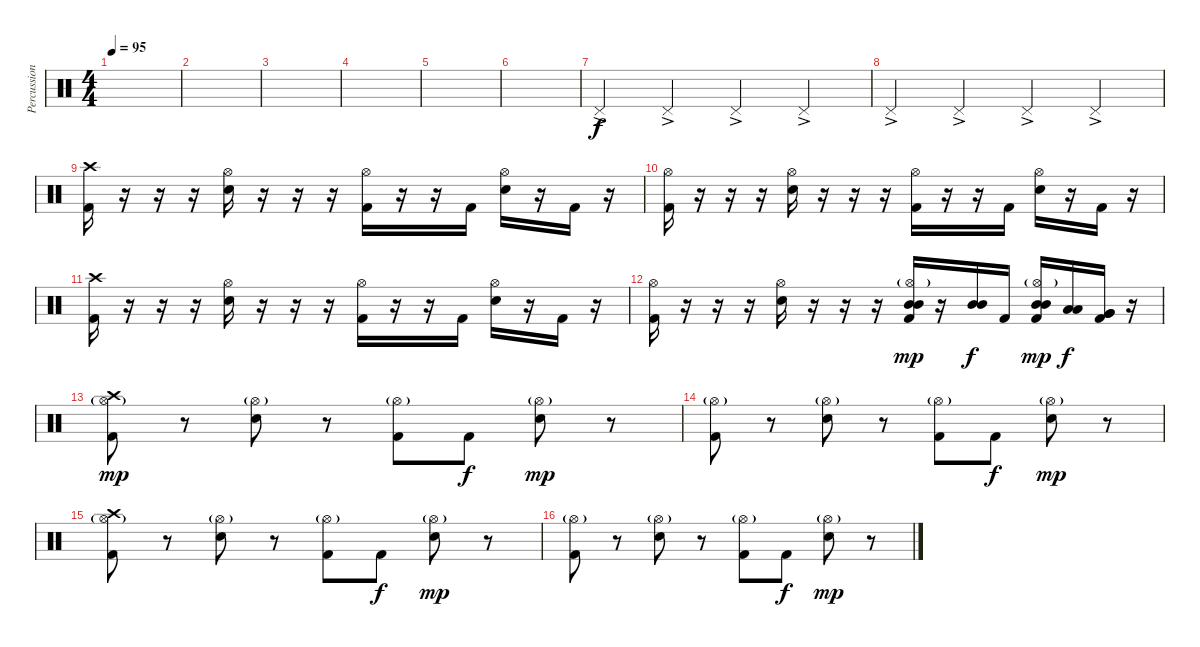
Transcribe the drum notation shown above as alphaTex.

\track ("Percussions" "Percussion") {instrument percussion}
\staff {score}
\articulation defaults
\ts (4 4)
\tempo 95
\clef neutral
\ks c
|
|
|
|
|
|
"Pedal Hi-Hat (hit)"{ac}.4 "Pedal Hi-Hat (hit)"{ac}.4 "Pedal Hi-Hat (hit)"{ac}.4 "Pedal Hi-Hat (hit)"{ac}.4 |
"Pedal Hi-Hat (hit)"{ac}.4 "Pedal Hi-Hat (hit)"{ac}.4 "Pedal Hi-Hat (hit)"{ac}.4 "Pedal Hi-Hat (hit)"{ac}.4 |
("Crash high (hit)" "Kick (hit) 2").16{dy f} r.16 r.16 r.16 ("Hi-Hat (open)" "Snare (hit) 2").16 r.16 r.16 r.16 ("Hi-Hat (open)" "Kick (hit) 2").16 r.16 r.16 "Kick (hit) 2".16 ("Hi-Hat (open)" "Snare (hit) 2").16 r.16 "Kick (hit) 2".16 r.16 |
("Hi-Hat (open)" "Kick (hit) 2").16 r.16 r.16 r.16 ("Hi-Hat (open)" "Snare (hit) 2").16 r.16 r.16 r.16 ("Hi-Hat (open)" "Kick (hit) 2").16 r.16 r.16 "Kick (hit) 2".16 ("Hi-Hat (open)" "Snare (hit) 2").16 r.16 "Kick (hit) 2".16 r.16 |
("Crash high (hit)" "Kick (hit) 2").16 r.16 r.16 r.16 ("Hi-Hat (open)" "Snare (hit) 2").16 r.16 r.16 r.16 ("Hi-Hat (open)" "Kick (hit) 2").16 r.16 r.16 "Kick (hit) 2".16 ("Hi-Hat (open)" "Snare (hit) 2").16 r.16 "Kick (hit) 2".16 r.16 |
("Hi-Hat (open)" "Kick (hit) 2").16 r.16 r.16 r.16 ("Hi-Hat (open)" "Snare (hit) 2").16 r.16 r.16 r.16 ("Hi-Hat (open)"{g} "Mid Tom (hit)" "Mid Tom (hit)" "Kick (hit) 2").16{dy mp} r.16 ("Mid Tom (hit)" "Mid Tom (hit)").16{dy f} "Kick (hit) 2".16 ("Hi-Hat (open)"{g} "Mid Tom (hit)" "Mid Tom (hit)" "Kick (hit) 2").16{dy mp} ("Low Tom (hit)" "Low Tom (hit)").16{dy f} ("Very Low Tom (hit)" "Very Low Tom (hit)" "Kick (hit) 2").16 r.16 |
("Hi-Hat (open)"{g} "Crash high (hit)" "Kick (hit) 2").8{dy mp} r.8 ("Hi-Hat (open)"{g} "Snare (hit) 2").8 r.8 ("Hi-Hat (open)"{g} "Kick (hit) 2").8 "Kick (hit) 2".8{dy f} ("Hi-Hat (open)"{g} "Snare (hit) 2").8{dy mp} r.8 |
("Hi-Hat (open)"{g} "Kick (hit) 2").8 r.8 ("Hi-Hat (open)"{g} "Snare (hit) 2").8 r.8 ("Hi-Hat (open)"{g} "Kick (hit) 2").8 "Kick (hit) 2".8{dy f} ("Hi-Hat (open)"{g} "Snare (hit) 2").8{dy mp} r.8 |
("Hi-Hat (open)"{g} "Crash high (hit)" "Kick (hit) 2").8 r.8 ("Hi-Hat (open)"{g} "Snare (hit) 2").8 r.8 ("Hi-Hat (open)"{g} "Kick (hit) 2").8 "Kick (hit) 2".8{dy f} ("Hi-Hat (open)"{g} "Snare (hit) 2").8{dy mp} r.8 |
("Hi-Hat (open)"{g} "Kick (hit) 2").8 r.8 ("Hi-Hat (open)"{g} "Snare (hit) 2").8 r.8 ("Hi-Hat (open)"{g} "Kick (hit) 2").8 "Kick (hit) 2".8{dy f} ("Hi-Hat (open)"{g} "Snare (hit) 2").8{dy mp} r.8
